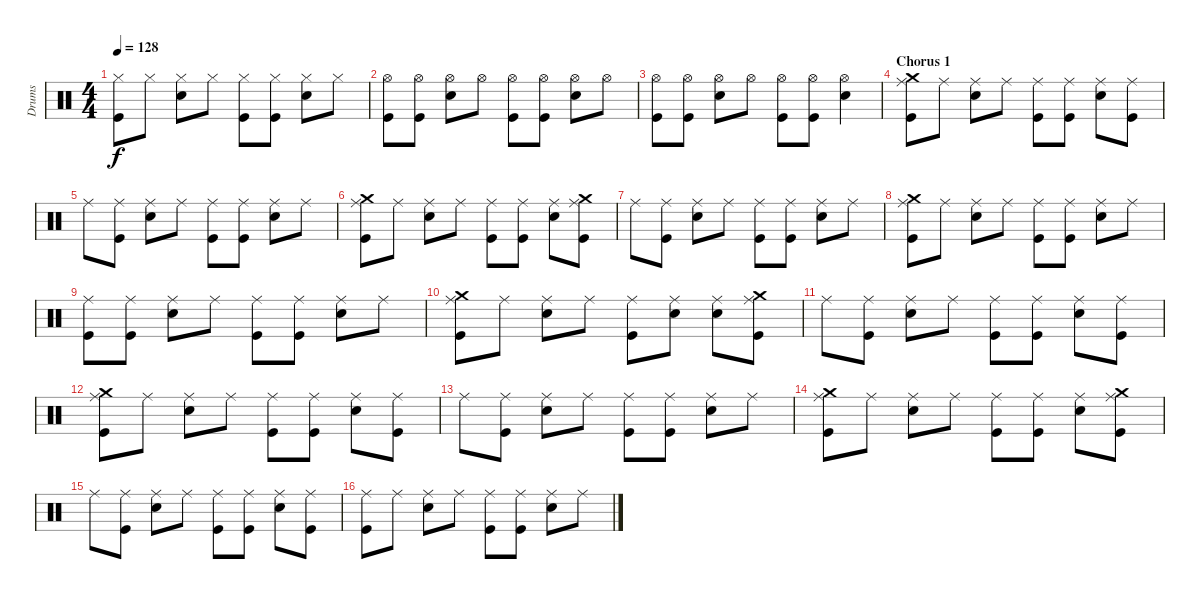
\track ("Drums" "Drums") {instrument percussion}
\staff {score}
\articulation defaults
\ts (4 4)
\tempo 128
\clef neutral
\ks c
("Hi-Hat (closed)" "Kick (hit)").8{dy f} "Hi-Hat (closed)".8 ("Hi-Hat (closed)" "Snare (hit) 2").8 "Hi-Hat (closed)".8 ("Hi-Hat (closed)" "Kick (hit)").8 ("Hi-Hat (closed)" "Kick (hit)").8 ("Hi-Hat (closed)" "Snare (hit) 2").8 "Hi-Hat (closed)".8 |
("Hi-Hat (open)" "Kick (hit)").8 ("Hi-Hat (open)" "Kick (hit)").8 ("Hi-Hat (open)" "Snare (hit) 2").8 "Hi-Hat (open)".8 ("Hi-Hat (open)" "Kick (hit)").8 ("Hi-Hat (open)" "Kick (hit)").8 ("Hi-Hat (open)" "Snare (hit) 2").8 "Hi-Hat (open)".8 |
("Hi-Hat (open)" "Kick (hit)").8 ("Hi-Hat (open)" "Kick (hit)").8 ("Hi-Hat (open)" "Snare (hit) 2").8 "Hi-Hat (open)".8 ("Hi-Hat (open)" "Kick (hit)").8 ("Hi-Hat (open)" "Kick (hit)").8 ("Hi-Hat (open)" "Snare (hit) 2").4 |
\section ("" "Chorus 1")
("Ride (middle)" "Crash medium (hit)" "Kick (hit)").8 "Ride (middle)".8 ("Ride (middle)" "Snare (hit) 2").8 "Ride (middle)".8 ("Ride (middle)" "Kick (hit)").8 ("Ride (middle)" "Kick (hit)").8 ("Ride (middle)" "Snare (hit) 2").8 ("Ride (middle)" "Kick (hit)").8 |
"Ride (middle)".8 ("Ride (middle)" "Kick (hit)").8 ("Ride (middle)" "Snare (hit) 2").8 "Ride (middle)".8 ("Ride (middle)" "Kick (hit)").8 ("Ride (middle)" "Kick (hit)").8 ("Ride (middle)" "Snare (hit) 2").8 "Ride (middle)".8 |
("Ride (middle)" "Crash medium (hit)" "Kick (hit)").8 "Ride (middle)".8 ("Ride (middle)" "Snare (hit) 2").8 "Ride (middle)".8 ("Ride (middle)" "Kick (hit)").8 ("Ride (middle)" "Kick (hit)").8 ("Ride (middle)" "Snare (hit) 2").8 ("Ride (middle)" "Crash medium (hit)" "Kick (hit)").8 |
"Ride (middle)".8 ("Ride (middle)" "Kick (hit)").8 ("Ride (middle)" "Snare (hit) 2").8 "Ride (middle)".8 ("Ride (middle)" "Kick (hit)").8 ("Ride (middle)" "Kick (hit)").8 ("Ride (middle)" "Snare (hit) 2").8 "Ride (middle)".8 |
("Ride (middle)" "Crash medium (hit)" "Kick (hit)").8 "Ride (middle)".8 ("Ride (middle)" "Snare (hit) 2").8 "Ride (middle)".8 ("Ride (middle)" "Kick (hit)").8 ("Ride (middle)" "Kick (hit)").8 ("Ride (middle)" "Snare (hit) 2").8 "Ride (middle)".8 |
("Ride (middle)" "Kick (hit)").8 ("Ride (middle)" "Kick (hit)").8 ("Ride (middle)" "Snare (hit) 2").8 "Ride (middle)".8 ("Ride (middle)" "Kick (hit)").8 ("Ride (middle)" "Kick (hit)").8 ("Ride (middle)" "Snare (hit) 2").8 "Ride (middle)".8 |
("Ride (middle)" "Crash medium (hit)" "Kick (hit)").8 "Ride (middle)".8 ("Ride (middle)" "Snare (hit) 2").8 "Ride (middle)".8 ("Ride (middle)" "Kick (hit)").8 ("Ride (middle)" "Snare (hit) 2").8 ("Ride (middle)" "Snare (hit) 2").8 ("Ride (middle)" "Crash medium (hit)" "Kick (hit)").8 |
"Ride (middle)".8 ("Ride (middle)" "Kick (hit)").8 ("Ride (middle)" "Snare (hit) 2").8 "Ride (middle)".8 ("Ride (middle)" "Kick (hit)").8 ("Ride (middle)" "Kick (hit)").8 ("Ride (middle)" "Snare (hit) 2").8 ("Ride (middle)" "Kick (hit)").8 |
("Ride (middle)" "Crash medium (hit)" "Kick (hit)").8 "Ride (middle)".8 ("Ride (middle)" "Snare (hit) 2").8 "Ride (middle)".8 ("Ride (middle)" "Kick (hit)").8 ("Ride (middle)" "Kick (hit)").8 ("Ride (middle)" "Snare (hit) 2").8 ("Ride (middle)" "Kick (hit)").8 |
"Ride (middle)".8 ("Ride (middle)" "Kick (hit)").8 ("Ride (middle)" "Snare (hit) 2").8 "Ride (middle)".8 ("Ride (middle)" "Kick (hit)").8 ("Ride (middle)" "Kick (hit)").8 ("Ride (middle)" "Snare (hit) 2").8 "Ride (middle)".8 |
("Ride (middle)" "Crash medium (hit)" "Kick (hit)").8 "Ride (middle)".8 ("Ride (middle)" "Snare (hit) 2").8 "Ride (middle)".8 ("Ride (middle)" "Kick (hit)").8 ("Ride (middle)" "Kick (hit)").8 ("Ride (middle)" "Snare (hit) 2").8 ("Ride (middle)" "Crash medium (hit)" "Kick (hit)").8 |
"Ride (middle)".8 ("Ride (middle)" "Kick (hit)").8 ("Ride (middle)" "Snare (hit) 2").8 "Ride (middle)".8 ("Ride (middle)" "Kick (hit)").8 ("Ride (middle)" "Kick (hit)").8 ("Ride (middle)" "Snare (hit) 2").8 ("Ride (middle)" "Kick (hit)").8 |
("Ride (middle)" "Kick (hit)").8 "Ride (middle)".8 ("Ride (middle)" "Snare (hit) 2").8 "Ride (middle)".8 ("Ride (middle)" "Kick (hit)").8 ("Ride (middle)" "Kick (hit)").8 ("Ride (middle)" "Snare (hit) 2").8 "Ride (middle)".8
